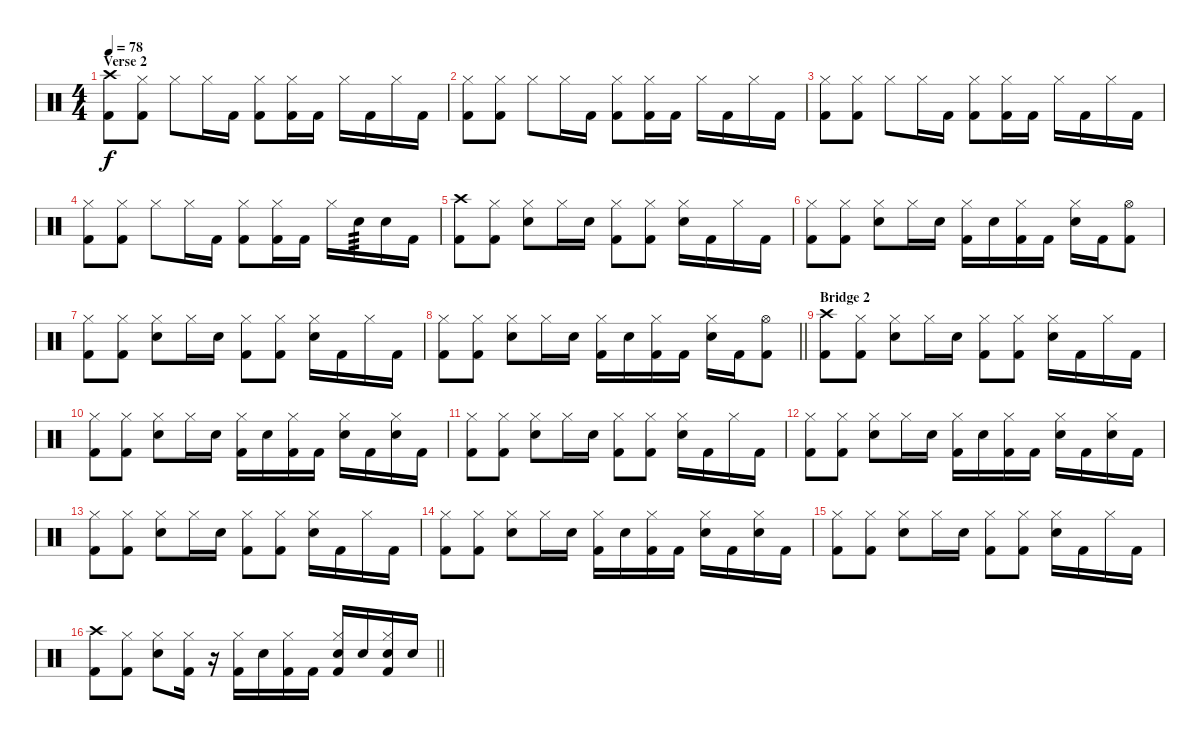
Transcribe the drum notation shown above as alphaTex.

\track "" {instrument percussion}
\staff {score}
\articulation defaults
\ts (4 4)
\section ("" "Verse 2")
\tempo 78
\clef neutral
\ks c
("Crash high (hit)" "Kick (hit) 2").8{dy f} ("Hi-Hat (closed)" "Kick (hit) 2").8 "Hi-Hat (closed)".8 "Hi-Hat (closed)".16 "Kick (hit) 2".16 ("Hi-Hat (closed)" "Kick (hit) 2").8 ("Hi-Hat (closed)" "Kick (hit) 2").16 "Kick (hit) 2".16 "Hi-Hat (closed)".16 "Kick (hit) 2".16 "Hi-Hat (closed)".16 "Kick (hit) 2".16 |
("Hi-Hat (closed)" "Kick (hit) 2").8 ("Hi-Hat (closed)" "Kick (hit) 2").8 "Hi-Hat (closed)".8 "Hi-Hat (closed)".16 "Kick (hit) 2".16 ("Hi-Hat (closed)" "Kick (hit) 2").8 ("Hi-Hat (closed)" "Kick (hit) 2").16 "Kick (hit) 2".16 "Hi-Hat (closed)".16 "Kick (hit) 2".16 "Hi-Hat (closed)".16 "Kick (hit) 2".16 |
("Hi-Hat (closed)" "Kick (hit) 2").8 ("Hi-Hat (closed)" "Kick (hit) 2").8 "Hi-Hat (closed)".8 "Hi-Hat (closed)".16 "Kick (hit) 2".16 ("Hi-Hat (closed)" "Kick (hit) 2").8 ("Hi-Hat (closed)" "Kick (hit) 2").16 "Kick (hit) 2".16 "Hi-Hat (closed)".16 "Kick (hit) 2".16 "Hi-Hat (closed)".16 "Kick (hit) 2".16 |
("Hi-Hat (closed)" "Kick (hit) 2").8 ("Hi-Hat (closed)" "Kick (hit) 2").8 "Hi-Hat (closed)".8 "Hi-Hat (closed)".16 "Kick (hit) 2".16 ("Hi-Hat (closed)" "Kick (hit) 2").8 ("Hi-Hat (closed)" "Kick (hit) 2").16 "Kick (hit) 2".16 "Hi-Hat (closed)".16 "Snare (hit) 2".16{tp 3} "Snare (hit) 2".16 "Kick (hit) 2".16 |
("Crash high (hit)" "Kick (hit) 2").8 ("Hi-Hat (closed)" "Kick (hit) 2").8 ("Hi-Hat (closed)" "Snare (hit) 2").8 "Hi-Hat (closed)".16 "Snare (hit) 2".16 ("Hi-Hat (closed)" "Kick (hit) 2").8 ("Hi-Hat (closed)" "Kick (hit) 2").8 ("Hi-Hat (closed)" "Snare (hit) 2").16 "Kick (hit) 2".16 "Hi-Hat (closed)".16 "Kick (hit) 2".16 |
("Hi-Hat (closed)" "Kick (hit) 2").8 ("Hi-Hat (closed)" "Kick (hit) 2").8 ("Hi-Hat (closed)" "Snare (hit) 2").8 "Hi-Hat (closed)".16 "Snare (hit) 2".16 ("Hi-Hat (closed)" "Kick (hit) 2").16 "Snare (hit) 2".16 ("Hi-Hat (closed)" "Kick (hit) 2").16 "Kick (hit) 2".16 ("Hi-Hat (closed)" "Snare (hit) 2").16 "Kick (hit) 2".16 ("Hi-Hat (open)" "Kick (hit) 2").8 |
("Hi-Hat (closed)" "Kick (hit) 2").8 ("Hi-Hat (closed)" "Kick (hit) 2").8 ("Hi-Hat (closed)" "Snare (hit) 2").8 "Hi-Hat (closed)".16 "Snare (hit) 2".16 ("Hi-Hat (closed)" "Kick (hit) 2").8 ("Hi-Hat (closed)" "Kick (hit) 2").8 ("Hi-Hat (closed)" "Snare (hit) 2").16 "Kick (hit) 2".16 "Hi-Hat (closed)".16 "Kick (hit) 2".16 |
\barLineRight lightlight
("Hi-Hat (closed)" "Kick (hit) 2").8 ("Hi-Hat (closed)" "Kick (hit) 2").8 ("Hi-Hat (closed)" "Snare (hit) 2").8 "Hi-Hat (closed)".16 "Snare (hit) 2".16 ("Hi-Hat (closed)" "Kick (hit) 2").16 "Snare (hit) 2".16 ("Hi-Hat (closed)" "Kick (hit) 2").16 "Kick (hit) 2".16 ("Hi-Hat (closed)" "Snare (hit) 2").16 "Kick (hit) 2".16 ("Hi-Hat (open)" "Kick (hit) 2").8 |
\section ("" "Bridge 2")
("Crash high (hit)" "Kick (hit) 2").8 ("Hi-Hat (closed)" "Kick (hit) 2").8 ("Hi-Hat (closed)" "Snare (hit) 2").8 "Hi-Hat (closed)".16 "Snare (hit) 2".16 ("Hi-Hat (closed)" "Kick (hit) 2").8 ("Hi-Hat (closed)" "Kick (hit) 2").8 ("Hi-Hat (closed)" "Snare (hit) 2").16 "Kick (hit) 2".16 "Hi-Hat (closed)".16 "Kick (hit) 2".16 |
("Hi-Hat (closed)" "Kick (hit) 2").8 ("Hi-Hat (closed)" "Kick (hit) 2").8 ("Hi-Hat (closed)" "Snare (hit) 2").8 "Hi-Hat (closed)".16 "Snare (hit) 2".16 ("Hi-Hat (closed)" "Kick (hit) 2").16 "Snare (hit) 2".16 ("Hi-Hat (closed)" "Kick (hit) 2").16 "Kick (hit) 2".16 ("Hi-Hat (closed)" "Snare (hit) 2").16 "Kick (hit) 2".16 ("Hi-Hat (closed)" "Snare (hit) 2").16 "Kick (hit) 2".16 |
("Hi-Hat (closed)" "Kick (hit) 2").8 ("Hi-Hat (closed)" "Kick (hit) 2").8 ("Hi-Hat (closed)" "Snare (hit) 2").8 "Hi-Hat (closed)".16 "Snare (hit) 2".16 ("Hi-Hat (closed)" "Kick (hit) 2").8 ("Hi-Hat (closed)" "Kick (hit) 2").8 ("Hi-Hat (closed)" "Snare (hit) 2").16 "Kick (hit) 2".16 "Hi-Hat (closed)".16 "Kick (hit) 2".16 |
("Hi-Hat (closed)" "Kick (hit) 2").8 ("Hi-Hat (closed)" "Kick (hit) 2").8 ("Hi-Hat (closed)" "Snare (hit) 2").8 "Hi-Hat (closed)".16 "Snare (hit) 2".16 ("Hi-Hat (closed)" "Kick (hit) 2").16 "Snare (hit) 2".16 ("Hi-Hat (closed)" "Kick (hit) 2").16 "Kick (hit) 2".16 ("Hi-Hat (closed)" "Snare (hit) 2").16 "Kick (hit) 2".16 ("Hi-Hat (closed)" "Snare (hit) 2").16 "Kick (hit) 2".16 |
("Hi-Hat (closed)" "Kick (hit) 2").8 ("Hi-Hat (closed)" "Kick (hit) 2").8 ("Hi-Hat (closed)" "Snare (hit) 2").8 "Hi-Hat (closed)".16 "Snare (hit) 2".16 ("Hi-Hat (closed)" "Kick (hit) 2").8 ("Hi-Hat (closed)" "Kick (hit) 2").8 ("Hi-Hat (closed)" "Snare (hit) 2").16 "Kick (hit) 2".16 "Hi-Hat (closed)".16 "Kick (hit) 2".16 |
("Hi-Hat (closed)" "Kick (hit) 2").8 ("Hi-Hat (closed)" "Kick (hit) 2").8 ("Hi-Hat (closed)" "Snare (hit) 2").8 "Hi-Hat (closed)".16 "Snare (hit) 2".16 ("Hi-Hat (closed)" "Kick (hit) 2").16 "Snare (hit) 2".16 ("Hi-Hat (closed)" "Kick (hit) 2").16 "Kick (hit) 2".16 ("Hi-Hat (closed)" "Snare (hit) 2").16 "Kick (hit) 2".16 ("Hi-Hat (closed)" "Snare (hit) 2").16 "Kick (hit) 2".16 |
("Hi-Hat (closed)" "Kick (hit) 2").8 ("Hi-Hat (closed)" "Kick (hit) 2").8 ("Hi-Hat (closed)" "Snare (hit) 2").8 "Hi-Hat (closed)".16 "Snare (hit) 2".16 ("Hi-Hat (closed)" "Kick (hit) 2").8 ("Hi-Hat (closed)" "Kick (hit) 2").8 ("Hi-Hat (closed)" "Snare (hit) 2").16 "Kick (hit) 2".16 "Hi-Hat (closed)".16 "Kick (hit) 2".16 |
\barLineRight lightlight
("Crash high (hit)" "Kick (hit) 2").8 ("Hi-Hat (closed)" "Kick (hit) 2").8 ("Hi-Hat (closed)" "Snare (hit) 2").8 ("Hi-Hat (closed)" "Kick (hit) 2").16 r.16 ("Hi-Hat (closed)" "Kick (hit) 2").16 "Snare (hit) 2".16 ("Hi-Hat (closed)" "Kick (hit) 2").16 "Kick (hit) 2".16 ("Hi-Hat (closed)" "Snare (hit) 2" "Kick (hit) 2").16 "Snare (hit) 2".16 ("Hi-Hat (closed)" "Snare (hit) 2" "Kick (hit) 2").16 "Snare (hit) 2".16
